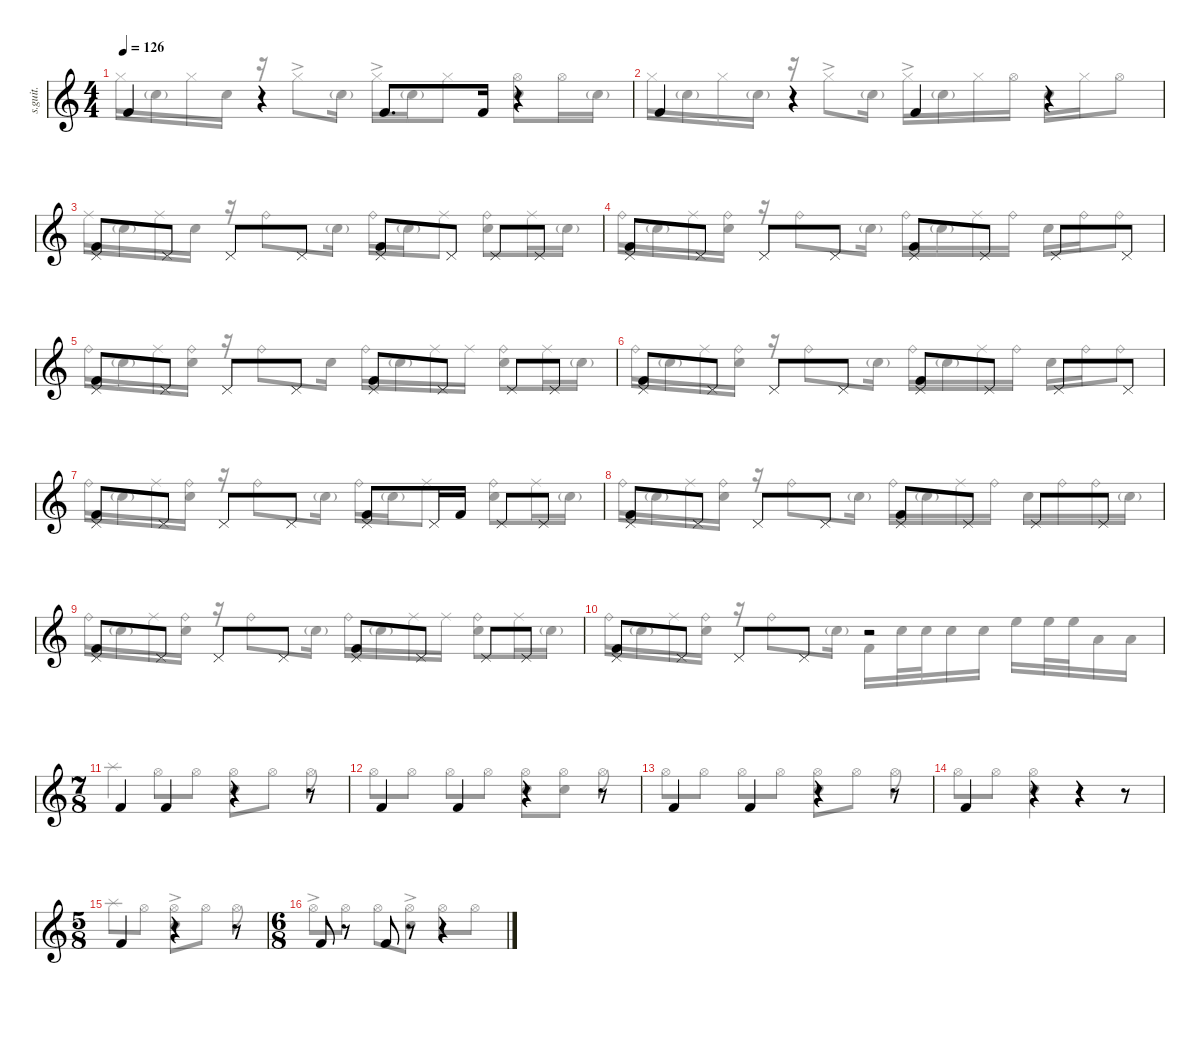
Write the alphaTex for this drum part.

\defaultSystemsLayout 4
\hideDynamics
\bracketExtendMode nobrackets
\track ("Percussion" "s.guit.") {instrument percussion}
\staff {score}
\articulation defaults
\voice
\ts (4 4)
\tempo 126
\clef g2
\ks c "Kick (hit) 2".4{lyrics (0 "") lyrics (1 "") lyrics (2 "") lyrics (3 "") lyrics (4 "") dy mf}
r.4 "Kick (hit) 2".8{d lyrics (0 "") lyrics (1 "") lyrics (2 "") lyrics (3 "") lyrics (4 "")} "Kick (hit) 2".16{lyrics (0 "") lyrics (1 "") lyrics (2 "") lyrics (3 "") lyrics (4 "")} r.4 |
"Kick (hit) 2".4{lyrics (0 "") lyrics (1 "") lyrics (2 "") lyrics (3 "") lyrics (4 "")} r.4 "Kick (hit) 2".4{lyrics (0 "") lyrics (1 "") lyrics (2 "") lyrics (3 "") lyrics (4 "")} r.4 |
("Pedal Hi-Hat (hit)" "Kick (hit) 2").8{lyrics (0 "") lyrics (1 "") lyrics (2 "") lyrics (3 "") lyrics (4 "")} "Pedal Hi-Hat (hit)".8{lyrics (0 "") lyrics (1 "") lyrics (2 "") lyrics (3 "") lyrics (4 "")} "Pedal Hi-Hat (hit)".8{lyrics (0 "") lyrics (1 "") lyrics (2 "") lyrics (3 "") lyrics (4 "")} "Pedal Hi-Hat (hit)".8{lyrics (0 "") lyrics (1 "") lyrics (2 "") lyrics (3 "") lyrics (4 "")} ("Pedal Hi-Hat (hit)" "Kick (hit) 2").8{lyrics (0 "") lyrics (1 "") lyrics (2 "") lyrics (3 "") lyrics (4 "")} "Pedal Hi-Hat (hit)".8{lyrics (0 "") lyrics (1 "") lyrics (2 "") lyrics (3 "") lyrics (4 "")} "Pedal Hi-Hat (hit)".8{lyrics (0 "") lyrics (1 "") lyrics (2 "") lyrics (3 "") lyrics (4 "")} "Pedal Hi-Hat (hit)".8{lyrics (0 "") lyrics (1 "") lyrics (2 "") lyrics (3 "") lyrics (4 "")} |
("Pedal Hi-Hat (hit)" "Kick (hit) 2").8{lyrics (0 "") lyrics (1 "") lyrics (2 "") lyrics (3 "") lyrics (4 "")} "Pedal Hi-Hat (hit)".8{lyrics (0 "") lyrics (1 "") lyrics (2 "") lyrics (3 "") lyrics (4 "")} "Pedal Hi-Hat (hit)".8{lyrics (0 "") lyrics (1 "") lyrics (2 "") lyrics (3 "") lyrics (4 "")} "Pedal Hi-Hat (hit)".8{lyrics (0 "") lyrics (1 "") lyrics (2 "") lyrics (3 "") lyrics (4 "")} ("Pedal Hi-Hat (hit)" "Kick (hit) 2").8{lyrics (0 "") lyrics (1 "") lyrics (2 "") lyrics (3 "") lyrics (4 "")} "Pedal Hi-Hat (hit)".8{lyrics (0 "") lyrics (1 "") lyrics (2 "") lyrics (3 "") lyrics (4 "")} "Pedal Hi-Hat (hit)".8{lyrics (0 "") lyrics (1 "") lyrics (2 "") lyrics (3 "") lyrics (4 "")} "Pedal Hi-Hat (hit)".8{lyrics (0 "") lyrics (1 "") lyrics (2 "") lyrics (3 "") lyrics (4 "")} |
("Pedal Hi-Hat (hit)" "Kick (hit) 2").8{lyrics (0 "") lyrics (1 "") lyrics (2 "") lyrics (3 "") lyrics (4 "")} "Pedal Hi-Hat (hit)".8{lyrics (0 "") lyrics (1 "") lyrics (2 "") lyrics (3 "") lyrics (4 "")} "Pedal Hi-Hat (hit)".8{lyrics (0 "") lyrics (1 "") lyrics (2 "") lyrics (3 "") lyrics (4 "")} "Pedal Hi-Hat (hit)".8{lyrics (0 "") lyrics (1 "") lyrics (2 "") lyrics (3 "") lyrics (4 "")} ("Pedal Hi-Hat (hit)" "Kick (hit) 2").8{lyrics (0 "") lyrics (1 "") lyrics (2 "") lyrics (3 "") lyrics (4 "")} "Pedal Hi-Hat (hit)".8{lyrics (0 "") lyrics (1 "") lyrics (2 "") lyrics (3 "") lyrics (4 "")} "Pedal Hi-Hat (hit)".8{lyrics (0 "") lyrics (1 "") lyrics (2 "") lyrics (3 "") lyrics (4 "")} "Pedal Hi-Hat (hit)".8{lyrics (0 "") lyrics (1 "") lyrics (2 "") lyrics (3 "") lyrics (4 "")} |
("Pedal Hi-Hat (hit)" "Kick (hit) 2").8{lyrics (0 "") lyrics (1 "") lyrics (2 "") lyrics (3 "") lyrics (4 "")} "Pedal Hi-Hat (hit)".8{lyrics (0 "") lyrics (1 "") lyrics (2 "") lyrics (3 "") lyrics (4 "")} "Pedal Hi-Hat (hit)".8{lyrics (0 "") lyrics (1 "") lyrics (2 "") lyrics (3 "") lyrics (4 "")} "Pedal Hi-Hat (hit)".8{lyrics (0 "") lyrics (1 "") lyrics (2 "") lyrics (3 "") lyrics (4 "")} ("Pedal Hi-Hat (hit)" "Kick (hit) 2").8{lyrics (0 "") lyrics (1 "") lyrics (2 "") lyrics (3 "") lyrics (4 "")} "Pedal Hi-Hat (hit)".8{lyrics (0 "") lyrics (1 "") lyrics (2 "") lyrics (3 "") lyrics (4 "")} "Pedal Hi-Hat (hit)".8{lyrics (0 "") lyrics (1 "") lyrics (2 "") lyrics (3 "") lyrics (4 "")} "Pedal Hi-Hat (hit)".8{lyrics (0 "") lyrics (1 "") lyrics (2 "") lyrics (3 "") lyrics (4 "")} |
("Pedal Hi-Hat (hit)" "Kick (hit) 2").8{lyrics (0 "") lyrics (1 "") lyrics (2 "") lyrics (3 "") lyrics (4 "")} "Pedal Hi-Hat (hit)".8{lyrics (0 "") lyrics (1 "") lyrics (2 "") lyrics (3 "") lyrics (4 "")} "Pedal Hi-Hat (hit)".8{lyrics (0 "") lyrics (1 "") lyrics (2 "") lyrics (3 "") lyrics (4 "")} "Pedal Hi-Hat (hit)".8{lyrics (0 "") lyrics (1 "") lyrics (2 "") lyrics (3 "") lyrics (4 "")} ("Pedal Hi-Hat (hit)" "Kick (hit) 2").8{lyrics (0 "") lyrics (1 "") lyrics (2 "") lyrics (3 "") lyrics (4 "")} "Pedal Hi-Hat (hit)".16{lyrics (0 "") lyrics (1 "") lyrics (2 "") lyrics (3 "") lyrics (4 "")} "Kick (hit) 2".16{lyrics (0 "") lyrics (1 "") lyrics (2 "") lyrics (3 "") lyrics (4 "")} "Pedal Hi-Hat (hit)".8{lyrics (0 "") lyrics (1 "") lyrics (2 "") lyrics (3 "") lyrics (4 "")} "Pedal Hi-Hat (hit)".8{lyrics (0 "") lyrics (1 "") lyrics (2 "") lyrics (3 "") lyrics (4 "")} |
("Pedal Hi-Hat (hit)" "Kick (hit) 2").8{lyrics (0 "") lyrics (1 "") lyrics (2 "") lyrics (3 "") lyrics (4 "")} "Pedal Hi-Hat (hit)".8{lyrics (0 "") lyrics (1 "") lyrics (2 "") lyrics (3 "") lyrics (4 "")} "Pedal Hi-Hat (hit)".8{lyrics (0 "") lyrics (1 "") lyrics (2 "") lyrics (3 "") lyrics (4 "")} "Pedal Hi-Hat (hit)".8{lyrics (0 "") lyrics (1 "") lyrics (2 "") lyrics (3 "") lyrics (4 "")} ("Pedal Hi-Hat (hit)" "Kick (hit) 2").8{lyrics (0 "") lyrics (1 "") lyrics (2 "") lyrics (3 "") lyrics (4 "")} "Pedal Hi-Hat (hit)".8{lyrics (0 "") lyrics (1 "") lyrics (2 "") lyrics (3 "") lyrics (4 "")} "Pedal Hi-Hat (hit)".8{lyrics (0 "") lyrics (1 "") lyrics (2 "") lyrics (3 "") lyrics (4 "")} "Pedal Hi-Hat (hit)".8{lyrics (0 "") lyrics (1 "") lyrics (2 "") lyrics (3 "") lyrics (4 "")} |
("Pedal Hi-Hat (hit)" "Kick (hit) 2").8{lyrics (0 "") lyrics (1 "") lyrics (2 "") lyrics (3 "") lyrics (4 "")} "Pedal Hi-Hat (hit)".8{lyrics (0 "") lyrics (1 "") lyrics (2 "") lyrics (3 "") lyrics (4 "")} "Pedal Hi-Hat (hit)".8{lyrics (0 "") lyrics (1 "") lyrics (2 "") lyrics (3 "") lyrics (4 "")} "Pedal Hi-Hat (hit)".8{lyrics (0 "") lyrics (1 "") lyrics (2 "") lyrics (3 "") lyrics (4 "")} ("Pedal Hi-Hat (hit)" "Kick (hit) 2").8{lyrics (0 "") lyrics (1 "") lyrics (2 "") lyrics (3 "") lyrics (4 "")} "Pedal Hi-Hat (hit)".8{lyrics (0 "") lyrics (1 "") lyrics (2 "") lyrics (3 "") lyrics (4 "")} "Pedal Hi-Hat (hit)".8{lyrics (0 "") lyrics (1 "") lyrics (2 "") lyrics (3 "") lyrics (4 "")} "Pedal Hi-Hat (hit)".8{lyrics (0 "") lyrics (1 "") lyrics (2 "") lyrics (3 "") lyrics (4 "")} |
("Pedal Hi-Hat (hit)" "Kick (hit) 2").8{lyrics (0 "") lyrics (1 "") lyrics (2 "") lyrics (3 "") lyrics (4 "")} "Pedal Hi-Hat (hit)".8{lyrics (0 "") lyrics (1 "") lyrics (2 "") lyrics (3 "") lyrics (4 "")} "Pedal Hi-Hat (hit)".8{lyrics (0 "") lyrics (1 "") lyrics (2 "") lyrics (3 "") lyrics (4 "")} "Pedal Hi-Hat (hit)".8{lyrics (0 "") lyrics (1 "") lyrics (2 "") lyrics (3 "") lyrics (4 "")} r.2 |
\ts (7 8)
\beaming (8 2 2 2 2)
"Kick (hit) 2".4{lyrics (0 "") lyrics (1 "") lyrics (2 "") lyrics (3 "") lyrics (4 "")} "Kick (hit) 2".4{lyrics (0 "") lyrics (1 "") lyrics (2 "") lyrics (3 "") lyrics (4 "")} r.4 r.8 |
"Kick (hit) 2".4{lyrics (0 "") lyrics (1 "") lyrics (2 "") lyrics (3 "") lyrics (4 "")} "Kick (hit) 2".4{lyrics (0 "") lyrics (1 "") lyrics (2 "") lyrics (3 "") lyrics (4 "")} r.4 r.8 |
"Kick (hit) 2".4{lyrics (0 "") lyrics (1 "") lyrics (2 "") lyrics (3 "") lyrics (4 "")} "Kick (hit) 2".4{lyrics (0 "") lyrics (1 "") lyrics (2 "") lyrics (3 "") lyrics (4 "")} r.4 r.8 |
"Kick (hit) 2".4{lyrics (0 "") lyrics (1 "") lyrics (2 "") lyrics (3 "") lyrics (4 "")} r.4 r.4 r.8 |
\ts (5 8)
\beaming (8 2 2 2 2)
"Kick (hit) 2".4{lyrics (0 "") lyrics (1 "") lyrics (2 "") lyrics (3 "") lyrics (4 "")} r.4 r.8 |
\ts (6 8)
\beaming (8 2 2 2 2)
"Kick (hit) 2".8{lyrics (0 "") lyrics (1 "") lyrics (2 "") lyrics (3 "") lyrics (4 "")} r.8 "Kick (hit) 2".8{lyrics (0 "") lyrics (1 "") lyrics (2 "") lyrics (3 "") lyrics (4 "")} r.8 r.4
\voice
\clef g2
\ottava regular
\simile none
\ks c "Hi-Hat (closed)".16{lyrics (0 "") lyrics (1 "") lyrics (2 "") lyrics (3 "") lyrics (4 "") dy mf} "Snare (hit) 2"{g}.16{lyrics (0 "") lyrics (1 "") lyrics (2 "") lyrics (3 "") lyrics (4 "")} "Hi-Hat (closed)".16{lyrics (0 "") lyrics (1 "") lyrics (2 "") lyrics (3 "") lyrics (4 "")} "Snare (hit) 2".16{lyrics (0 "") lyrics (1 "") lyrics (2 "") lyrics (3 "") lyrics (4 "")}
r.16 "Hi-Hat (closed)"{ac}.8{lyrics (0 "") lyrics (1 "") lyrics (2 "") lyrics (3 "") lyrics (4 "")} "Snare (hit) 2"{g}.16{lyrics (0 "") lyrics (1 "") lyrics (2 "") lyrics (3 "") lyrics (4 "")} "Hi-Hat (closed)"{ac}.16{lyrics (0 "") lyrics (1 "") lyrics (2 "") lyrics (3 "") lyrics (4 "")} "Snare (hit) 2"{g}.16{lyrics (0 "") lyrics (1 "") lyrics (2 "") lyrics (3 "") lyrics (4 "")} "Hi-Hat (closed)".8{lyrics (0 "") lyrics (1 "") lyrics (2 "") lyrics (3 "") lyrics (4 "")} ("Hi-Hat (open)" "Snare (hit) 2").8{lyrics (0 "") lyrics (1 "") lyrics (2 "") lyrics (3 "") lyrics (4 "")} "Hi-Hat (open)".16{lyrics (0 "") lyrics (1 "") lyrics (2 "") lyrics (3 "") lyrics (4 "")} "Snare (hit) 2"{g}.16{lyrics (0 "") lyrics (1 "") lyrics (2 "") lyrics (3 "") lyrics (4 "")} |
"Hi-Hat (closed)".16{lyrics (0 "") lyrics (1 "") lyrics (2 "") lyrics (3 "") lyrics (4 "")} "Snare (hit) 2"{g}.16{lyrics (0 "") lyrics (1 "") lyrics (2 "") lyrics (3 "") lyrics (4 "")} "Hi-Hat (closed)".16{lyrics (0 "") lyrics (1 "") lyrics (2 "") lyrics (3 "") lyrics (4 "")} "Snare (hit) 2"{g}.16{lyrics (0 "") lyrics (1 "") lyrics (2 "") lyrics (3 "") lyrics (4 "")} r.16 "Hi-Hat (closed)"{ac}.8{lyrics (0 "") lyrics (1 "") lyrics (2 "") lyrics (3 "") lyrics (4 "")} "Snare (hit) 2"{g}.16{lyrics (0 "") lyrics (1 "") lyrics (2 "") lyrics (3 "") lyrics (4 "")} "Hi-Hat (closed)"{ac}.16{lyrics (0 "") lyrics (1 "") lyrics (2 "") lyrics (3 "") lyrics (4 "")} "Snare (hit) 2"{g}.16{lyrics (0 "") lyrics (1 "") lyrics (2 "") lyrics (3 "") lyrics (4 "")} "Hi-Hat (closed)".16{lyrics (0 "") lyrics (1 "") lyrics (2 "") lyrics (3 "") lyrics (4 "")} "Hi-Hat (open)".16{lyrics (0 "") lyrics (1 "") lyrics (2 "") lyrics (3 "") lyrics (4 "")} "Snare (hit) 2".16{lyrics (0 "") lyrics (1 "") lyrics (2 "") lyrics (3 "") lyrics (4 "")} "Hi-Hat (closed)".16{lyrics (0 "") lyrics (1 "") lyrics (2 "") lyrics (3 "") lyrics (4 "")} "Hi-Hat (open)".8{lyrics (0 "") lyrics (1 "") lyrics (2 "") lyrics (3 "") lyrics (4 "")} |
"Ride (middle)".16{lyrics (0 "") lyrics (1 "") lyrics (2 "") lyrics (3 "") lyrics (4 "")} "Snare (hit) 2"{g}.16{lyrics (0 "") lyrics (1 "") lyrics (2 "") lyrics (3 "") lyrics (4 "")} "Ride (middle)".16{lyrics (0 "") lyrics (1 "") lyrics (2 "") lyrics (3 "") lyrics (4 "")} "Snare (hit) 2".16{lyrics (0 "") lyrics (1 "") lyrics (2 "") lyrics (3 "") lyrics (4 "")} r.16 "Ride (bell)".8{lyrics (0 "") lyrics (1 "") lyrics (2 "") lyrics (3 "") lyrics (4 "")} "Snare (hit) 2"{g}.16{lyrics (0 "") lyrics (1 "") lyrics (2 "") lyrics (3 "") lyrics (4 "")} "Ride (bell)".16{lyrics (0 "") lyrics (1 "") lyrics (2 "") lyrics (3 "") lyrics (4 "")} "Snare (hit) 2"{g}.16{lyrics (0 "") lyrics (1 "") lyrics (2 "") lyrics (3 "") lyrics (4 "")} "Ride (middle)".8{lyrics (0 "") lyrics (1 "") lyrics (2 "") lyrics (3 "") lyrics (4 "")} ("Ride (bell)" "Snare (hit) 2").8{lyrics (0 "") lyrics (1 "") lyrics (2 "") lyrics (3 "") lyrics (4 "")} "Ride (middle)".16{lyrics (0 "") lyrics (1 "") lyrics (2 "") lyrics (3 "") lyrics (4 "")} "Snare (hit) 2"{g}.16{lyrics (0 "") lyrics (1 "") lyrics (2 "") lyrics (3 "") lyrics (4 "")} |
"Ride (bell)".16{lyrics (0 "") lyrics (1 "") lyrics (2 "") lyrics (3 "") lyrics (4 "")} "Snare (hit) 2"{g}.16{lyrics (0 "") lyrics (1 "") lyrics (2 "") lyrics (3 "") lyrics (4 "")} "Ride (middle)".16{lyrics (0 "") lyrics (1 "") lyrics (2 "") lyrics (3 "") lyrics (4 "")} ("Ride (bell)" "Snare (hit) 2").16{lyrics (0 "") lyrics (1 "") lyrics (2 "") lyrics (3 "") lyrics (4 "")} r.16 "Ride (bell)".8{lyrics (0 "") lyrics (1 "") lyrics (2 "") lyrics (3 "") lyrics (4 "")} "Snare (hit) 2"{g}.16{lyrics (0 "") lyrics (1 "") lyrics (2 "") lyrics (3 "") lyrics (4 "")} "Ride (bell)".16{lyrics (0 "") lyrics (1 "") lyrics (2 "") lyrics (3 "") lyrics (4 "")} "Snare (hit) 2"{g}.16{lyrics (0 "") lyrics (1 "") lyrics (2 "") lyrics (3 "") lyrics (4 "")} "Ride (middle)".16{lyrics (0 "") lyrics (1 "") lyrics (2 "") lyrics (3 "") lyrics (4 "")} "Ride (bell)".16{lyrics (0 "") lyrics (1 "") lyrics (2 "") lyrics (3 "") lyrics (4 "")} "Snare (hit) 2".16{lyrics (0 "") lyrics (1 "") lyrics (2 "") lyrics (3 "") lyrics (4 "")} "Ride (bell)".16{lyrics (0 "") lyrics (1 "") lyrics (2 "") lyrics (3 "") lyrics (4 "")} "Ride (bell)".8{lyrics (0 "") lyrics (1 "") lyrics (2 "") lyrics (3 "") lyrics (4 "")} |
"Ride (bell)".16{lyrics (0 "") lyrics (1 "") lyrics (2 "") lyrics (3 "") lyrics (4 "")} "Snare (hit) 2"{g}.16{lyrics (0 "") lyrics (1 "") lyrics (2 "") lyrics (3 "") lyrics (4 "")} "Ride (middle)".16{lyrics (0 "") lyrics (1 "") lyrics (2 "") lyrics (3 "") lyrics (4 "")} ("Ride (bell)" "Snare (hit) 2").16{lyrics (0 "") lyrics (1 "") lyrics (2 "") lyrics (3 "") lyrics (4 "")} r.16 "Ride (bell)".8{lyrics (0 "") lyrics (1 "") lyrics (2 "") lyrics (3 "") lyrics (4 "")} "Snare (hit) 2".16{lyrics (0 "") lyrics (1 "") lyrics (2 "") lyrics (3 "") lyrics (4 "")} "Ride (bell)".16{lyrics (0 "") lyrics (1 "") lyrics (2 "") lyrics (3 "") lyrics (4 "")} "Snare (hit) 2"{g}.16{lyrics (0 "") lyrics (1 "") lyrics (2 "") lyrics (3 "") lyrics (4 "")} "Ride (middle)".16{lyrics (0 "") lyrics (1 "") lyrics (2 "") lyrics (3 "") lyrics (4 "")} "Ride (middle)".16{lyrics (0 "") lyrics (1 "") lyrics (2 "") lyrics (3 "") lyrics (4 "")} ("Ride (bell)" "Snare (hit) 2").8{lyrics (0 "") lyrics (1 "") lyrics (2 "") lyrics (3 "") lyrics (4 "")} "Ride (middle)".16{lyrics (0 "") lyrics (1 "") lyrics (2 "") lyrics (3 "") lyrics (4 "")} "Snare (hit) 2"{g}.16{lyrics (0 "") lyrics (1 "") lyrics (2 "") lyrics (3 "") lyrics (4 "")} |
"Ride (bell)".16{lyrics (0 "") lyrics (1 "") lyrics (2 "") lyrics (3 "") lyrics (4 "")} "Snare (hit) 2"{g}.16{lyrics (0 "") lyrics (1 "") lyrics (2 "") lyrics (3 "") lyrics (4 "")} "Ride (middle)".16{lyrics (0 "") lyrics (1 "") lyrics (2 "") lyrics (3 "") lyrics (4 "")} ("Ride (bell)" "Snare (hit) 2").16{lyrics (0 "") lyrics (1 "") lyrics (2 "") lyrics (3 "") lyrics (4 "")} r.16 "Ride (bell)".8{lyrics (0 "") lyrics (1 "") lyrics (2 "") lyrics (3 "") lyrics (4 "")} "Snare (hit) 2"{g}.16{lyrics (0 "") lyrics (1 "") lyrics (2 "") lyrics (3 "") lyrics (4 "")} "Ride (bell)".16{lyrics (0 "") lyrics (1 "") lyrics (2 "") lyrics (3 "") lyrics (4 "")} "Snare (hit) 2"{g}.16{lyrics (0 "") lyrics (1 "") lyrics (2 "") lyrics (3 "") lyrics (4 "")} "Ride (middle)".16{lyrics (0 "") lyrics (1 "") lyrics (2 "") lyrics (3 "") lyrics (4 "")} "Ride (bell)".16{lyrics (0 "") lyrics (1 "") lyrics (2 "") lyrics (3 "") lyrics (4 "")} "Snare (hit) 2".16{lyrics (0 "") lyrics (1 "") lyrics (2 "") lyrics (3 "") lyrics (4 "")} "Ride (bell)".16{lyrics (0 "") lyrics (1 "") lyrics (2 "") lyrics (3 "") lyrics (4 "")} "Ride (bell)".8{lyrics (0 "") lyrics (1 "") lyrics (2 "") lyrics (3 "") lyrics (4 "")} |
"Ride (bell)".16{lyrics (0 "") lyrics (1 "") lyrics (2 "") lyrics (3 "") lyrics (4 "")} "Snare (hit) 2"{g}.16{lyrics (0 "") lyrics (1 "") lyrics (2 "") lyrics (3 "") lyrics (4 "")} "Ride (middle)".16{lyrics (0 "") lyrics (1 "") lyrics (2 "") lyrics (3 "") lyrics (4 "")} ("Ride (bell)" "Snare (hit) 2").16{lyrics (0 "") lyrics (1 "") lyrics (2 "") lyrics (3 "") lyrics (4 "")} r.16 "Ride (bell)".8{lyrics (0 "") lyrics (1 "") lyrics (2 "") lyrics (3 "") lyrics (4 "")} "Snare (hit) 2"{g}.16{lyrics (0 "") lyrics (1 "") lyrics (2 "") lyrics (3 "") lyrics (4 "")} "Ride (bell)".16{lyrics (0 "") lyrics (1 "") lyrics (2 "") lyrics (3 "") lyrics (4 "")} "Snare (hit) 2"{g}.16{lyrics (0 "") lyrics (1 "") lyrics (2 "") lyrics (3 "") lyrics (4 "")} "Ride (middle)".8{lyrics (0 "") lyrics (1 "") lyrics (2 "") lyrics (3 "") lyrics (4 "")} ("Ride (bell)" "Snare (hit) 2").8{lyrics (0 "") lyrics (1 "") lyrics (2 "") lyrics (3 "") lyrics (4 "")} "Ride (middle)".16{lyrics (0 "") lyrics (1 "") lyrics (2 "") lyrics (3 "") lyrics (4 "")} "Snare (hit) 2"{g}.16{lyrics (0 "") lyrics (1 "") lyrics (2 "") lyrics (3 "") lyrics (4 "")} |
"Ride (bell)".16{lyrics (0 "") lyrics (1 "") lyrics (2 "") lyrics (3 "") lyrics (4 "")} "Snare (hit) 2"{g}.16{lyrics (0 "") lyrics (1 "") lyrics (2 "") lyrics (3 "") lyrics (4 "")} "Ride (middle)".16{lyrics (0 "") lyrics (1 "") lyrics (2 "") lyrics (3 "") lyrics (4 "")} ("Ride (bell)" "Snare (hit) 2").16{lyrics (0 "") lyrics (1 "") lyrics (2 "") lyrics (3 "") lyrics (4 "")} r.16 "Ride (bell)".8{lyrics (0 "") lyrics (1 "") lyrics (2 "") lyrics (3 "") lyrics (4 "")} "Snare (hit) 2"{g}.16{lyrics (0 "") lyrics (1 "") lyrics (2 "") lyrics (3 "") lyrics (4 "")} "Ride (bell)".16{lyrics (0 "") lyrics (1 "") lyrics (2 "") lyrics (3 "") lyrics (4 "")} "Snare (hit) 2"{g}.16{lyrics (0 "") lyrics (1 "") lyrics (2 "") lyrics (3 "") lyrics (4 "")} "Ride (middle)".16{lyrics (0 "") lyrics (1 "") lyrics (2 "") lyrics (3 "") lyrics (4 "")} "Ride (bell)".16{lyrics (0 "") lyrics (1 "") lyrics (2 "") lyrics (3 "") lyrics (4 "")} "Snare (hit) 2".16{lyrics (0 "") lyrics (1 "") lyrics (2 "") lyrics (3 "") lyrics (4 "")} "Ride (bell)".16{lyrics (0 "") lyrics (1 "") lyrics (2 "") lyrics (3 "") lyrics (4 "")} "Ride (bell)".16{lyrics (0 "") lyrics (1 "") lyrics (2 "") lyrics (3 "") lyrics (4 "")} "Snare (hit) 2"{g}.16{lyrics (0 "") lyrics (1 "") lyrics (2 "") lyrics (3 "") lyrics (4 "")} |
"Ride (bell)".16{lyrics (0 "") lyrics (1 "") lyrics (2 "") lyrics (3 "") lyrics (4 "")} "Snare (hit) 2"{g}.16{lyrics (0 "") lyrics (1 "") lyrics (2 "") lyrics (3 "") lyrics (4 "")} "Ride (middle)".16{lyrics (0 "") lyrics (1 "") lyrics (2 "") lyrics (3 "") lyrics (4 "")} ("Ride (bell)" "Snare (hit) 2").16{lyrics (0 "") lyrics (1 "") lyrics (2 "") lyrics (3 "") lyrics (4 "")} r.16 "Ride (bell)".8{lyrics (0 "") lyrics (1 "") lyrics (2 "") lyrics (3 "") lyrics (4 "")} "Snare (hit) 2"{g}.16{lyrics (0 "") lyrics (1 "") lyrics (2 "") lyrics (3 "") lyrics (4 "")} "Ride (bell)".16{lyrics (0 "") lyrics (1 "") lyrics (2 "") lyrics (3 "") lyrics (4 "")} "Snare (hit) 2"{g}.16{lyrics (0 "") lyrics (1 "") lyrics (2 "") lyrics (3 "") lyrics (4 "")} "Ride (middle)".16{lyrics (0 "") lyrics (1 "") lyrics (2 "") lyrics (3 "") lyrics (4 "")} "Ride (middle)".16{lyrics (0 "") lyrics (1 "") lyrics (2 "") lyrics (3 "") lyrics (4 "")} ("Ride (bell)" "Snare (hit) 2").8{lyrics (0 "") lyrics (1 "") lyrics (2 "") lyrics (3 "") lyrics (4 "")} "Ride (middle)".16{lyrics (0 "") lyrics (1 "") lyrics (2 "") lyrics (3 "") lyrics (4 "")} "Snare (hit) 2"{g}.16{lyrics (0 "") lyrics (1 "") lyrics (2 "") lyrics (3 "") lyrics (4 "")} |
"Ride (bell)".16{lyrics (0 "") lyrics (1 "") lyrics (2 "") lyrics (3 "") lyrics (4 "")} "Snare (hit) 2"{g}.16{lyrics (0 "") lyrics (1 "") lyrics (2 "") lyrics (3 "") lyrics (4 "")} "Ride (middle)".16{lyrics (0 "") lyrics (1 "") lyrics (2 "") lyrics (3 "") lyrics (4 "")} ("Ride (bell)" "Snare (hit) 2").16{lyrics (0 "") lyrics (1 "") lyrics (2 "") lyrics (3 "") lyrics (4 "")} r.16 "Ride (bell)".8{lyrics (0 "") lyrics (1 "") lyrics (2 "") lyrics (3 "") lyrics (4 "")} "Snare (hit) 2"{g}.16{lyrics (0 "") lyrics (1 "") lyrics (2 "") lyrics (3 "") lyrics (4 "")} "Kick (hit) 2".16{lyrics (0 "") lyrics (1 "") lyrics (2 "") lyrics (3 "") lyrics (4 "")} "Snare (hit) 2".32{lyrics (0 "") lyrics (1 "") lyrics (2 "") lyrics (3 "") lyrics (4 "")} "Snare (hit) 2".32{lyrics (0 "") lyrics (1 "") lyrics (2 "") lyrics (3 "") lyrics (4 "")} "Snare (hit) 2".16{lyrics (0 "") lyrics (1 "") lyrics (2 "") lyrics (3 "") lyrics (4 "")} "Snare (hit) 2".16{lyrics (0 "") lyrics (1 "") lyrics (2 "") lyrics (3 "") lyrics (4 "")} "High Floor Tom (hit)".16{lyrics (0 "") lyrics (1 "") lyrics (2 "") lyrics (3 "") lyrics (4 "")} "High Floor Tom (hit)".32{lyrics (0 "") lyrics (1 "") lyrics (2 "") lyrics (3 "") lyrics (4 "")} "High Floor Tom (hit)".32{lyrics (0 "") lyrics (1 "") lyrics (2 "") lyrics (3 "") lyrics (4 "")} "Low Tom (hit)".16{lyrics (0 "") lyrics (1 "") lyrics (2 "") lyrics (3 "") lyrics (4 "")} "Low Tom (hit)".16{lyrics (0 "") lyrics (1 "") lyrics (2 "") lyrics (3 "") lyrics (4 "")} |
"Splash (hit)".4{lyrics (0 "") lyrics (1 "") lyrics (2 "") lyrics (3 "") lyrics (4 "")} "Hi-Hat (open)".8{lyrics (0 "") lyrics (1 "") lyrics (2 "") lyrics (3 "") lyrics (4 "")} "Hi-Hat (open)".8{lyrics (0 "") lyrics (1 "") lyrics (2 "") lyrics (3 "") lyrics (4 "")} ("Hi-Hat (open)" "Snare (hit) 2").8{lyrics (0 "") lyrics (1 "") lyrics (2 "") lyrics (3 "") lyrics (4 "")} "Hi-Hat (open)".8{lyrics (0 "") lyrics (1 "") lyrics (2 "") lyrics (3 "") lyrics (4 "")} "Hi-Hat (open)".8{lyrics (0 "") lyrics (1 "") lyrics (2 "") lyrics (3 "") lyrics (4 "")} |
"Hi-Hat (open)".8{lyrics (0 "") lyrics (1 "") lyrics (2 "") lyrics (3 "") lyrics (4 "")} "Hi-Hat (open)".8{lyrics (0 "") lyrics (1 "") lyrics (2 "") lyrics (3 "") lyrics (4 "")} "Hi-Hat (open)".8{lyrics (0 "") lyrics (1 "") lyrics (2 "") lyrics (3 "") lyrics (4 "")} "Hi-Hat (open)".8{lyrics (0 "") lyrics (1 "") lyrics (2 "") lyrics (3 "") lyrics (4 "")} ("Hi-Hat (open)" "Snare (hit) 2").8{lyrics (0 "") lyrics (1 "") lyrics (2 "") lyrics (3 "") lyrics (4 "")} ("Hi-Hat (open)" "Snare (hit) 2").8{lyrics (0 "") lyrics (1 "") lyrics (2 "") lyrics (3 "") lyrics (4 "")} "Hi-Hat (open)".8{lyrics (0 "") lyrics (1 "") lyrics (2 "") lyrics (3 "") lyrics (4 "")} |
"Hi-Hat (open)".8{lyrics (0 "") lyrics (1 "") lyrics (2 "") lyrics (3 "") lyrics (4 "")} "Hi-Hat (open)".8{lyrics (0 "") lyrics (1 "") lyrics (2 "") lyrics (3 "") lyrics (4 "")} "Hi-Hat (open)".8{lyrics (0 "") lyrics (1 "") lyrics (2 "") lyrics (3 "") lyrics (4 "")} "Hi-Hat (open)".8{lyrics (0 "") lyrics (1 "") lyrics (2 "") lyrics (3 "") lyrics (4 "")} ("Hi-Hat (open)" "Snare (hit) 2").8{lyrics (0 "") lyrics (1 "") lyrics (2 "") lyrics (3 "") lyrics (4 "")} "Hi-Hat (open)".8{lyrics (0 "") lyrics (1 "") lyrics (2 "") lyrics (3 "") lyrics (4 "")} "Hi-Hat (open)".8{lyrics (0 "") lyrics (1 "") lyrics (2 "") lyrics (3 "") lyrics (4 "")} |
"Hi-Hat (open)".8{lyrics (0 "") lyrics (1 "") lyrics (2 "") lyrics (3 "") lyrics (4 "")} "Hi-Hat (open)".8{lyrics (0 "") lyrics (1 "") lyrics (2 "") lyrics (3 "") lyrics (4 "")} ("Hi-Hat (open)" "Snare (hit) 2").4{lyrics (0 "") lyrics (1 "") lyrics (2 "") lyrics (3 "") lyrics (4 "")} r.4 r.8 |
"Splash (hit)".8{lyrics (0 "") lyrics (1 "") lyrics (2 "") lyrics (3 "") lyrics (4 "")} "Hi-Hat (open)".8{lyrics (0 "") lyrics (1 "") lyrics (2 "") lyrics (3 "") lyrics (4 "")} ("Hi-Hat (open)"{ac} "Snare (hit) 2").8{lyrics (0 "") lyrics (1 "") lyrics (2 "") lyrics (3 "") lyrics (4 "")} "Hi-Hat (open)".8{lyrics (0 "") lyrics (1 "") lyrics (2 "") lyrics (3 "") lyrics (4 "")} "Hi-Hat (open)".8{lyrics (0 "") lyrics (1 "") lyrics (2 "") lyrics (3 "") lyrics (4 "")} |
"Hi-Hat (open)"{ac}.8{lyrics (0 "") lyrics (1 "") lyrics (2 "") lyrics (3 "") lyrics (4 "")} "Hi-Hat (open)".8{lyrics (0 "") lyrics (1 "") lyrics (2 "") lyrics (3 "") lyrics (4 "")} "Hi-Hat (open)".8{lyrics (0 "") lyrics (1 "") lyrics (2 "") lyrics (3 "") lyrics (4 "")} ("Hi-Hat (open)" "Snare (hit) 2"{ac}).8{lyrics (0 "") lyrics (1 "") lyrics (2 "") lyrics (3 "") lyrics (4 "")} "Hi-Hat (open)".8{lyrics (0 "") lyrics (1 "") lyrics (2 "") lyrics (3 "") lyrics (4 "")} "Hi-Hat (open)".8{lyrics (0 "") lyrics (1 "") lyrics (2 "") lyrics (3 "") lyrics (4 "")}
